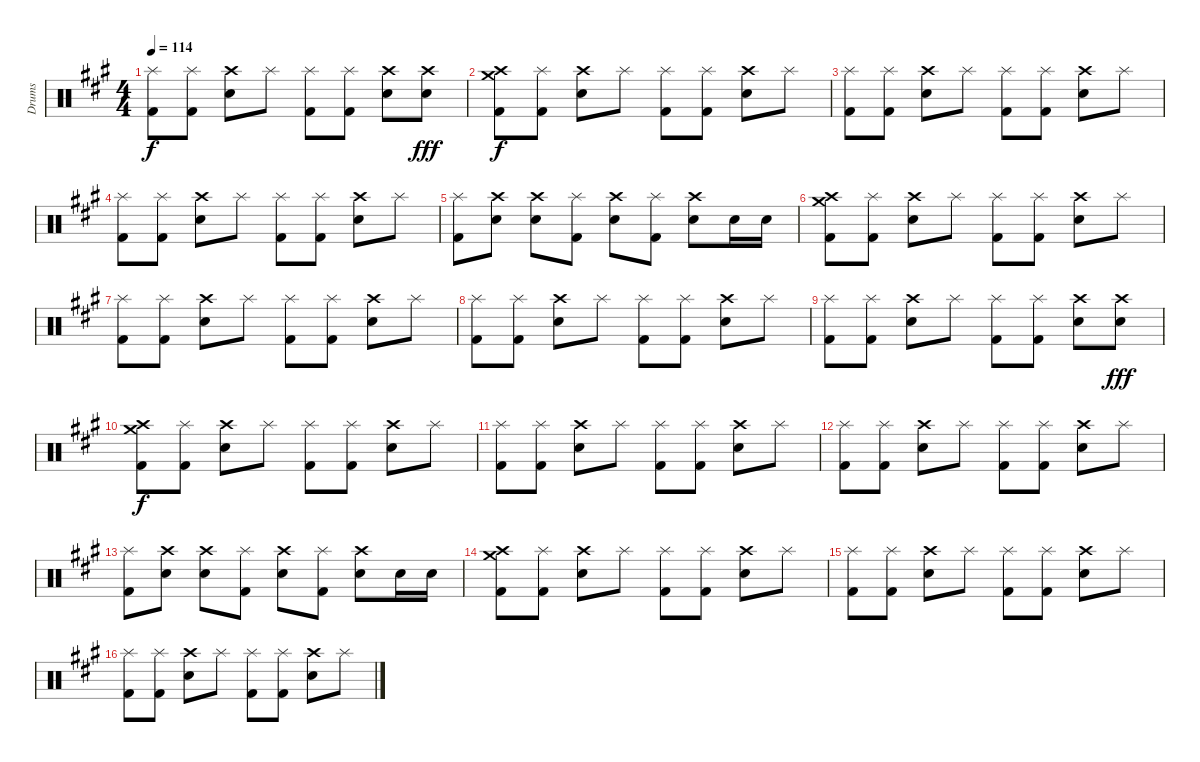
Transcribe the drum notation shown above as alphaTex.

\track ("Drums" "Drums") {instrument percussion}
\staff {score}
\articulation defaults
\ts (4 4)
\tempo 114
\clef neutral
\ks a
("Splash (hit)" "Kick (hit) 2").8{dy f} ("Splash (hit)" "Kick (hit) 2").8 ("Crash high (hit)" "Snare (hit) 2").8 "Splash (hit)".8 ("Splash (hit)" "Kick (hit) 2").8 ("Splash (hit)" "Kick (hit) 2").8 ("Crash high (hit)" "Snare (hit) 2").8 ("Crash high (hit)" "Snare (hit) 2").8{dy fff} |
("Crash high (hit)" "Crash medium (hit)" "Kick (hit) 2").8{dy f} ("Splash (hit)" "Kick (hit) 2").8 ("Crash high (hit)" "Snare (hit) 2").8 "Splash (hit)".8 ("Splash (hit)" "Kick (hit) 2").8 ("Splash (hit)" "Kick (hit) 2").8 ("Crash high (hit)" "Snare (hit) 2").8 "Splash (hit)".8 |
("Splash (hit)" "Kick (hit) 2").8 ("Splash (hit)" "Kick (hit) 2").8 ("Crash high (hit)" "Snare (hit) 2").8 "Splash (hit)".8 ("Splash (hit)" "Kick (hit) 2").8 ("Splash (hit)" "Kick (hit) 2").8 ("Crash high (hit)" "Snare (hit) 2").8 "Splash (hit)".8 |
("Splash (hit)" "Kick (hit) 2").8 ("Splash (hit)" "Kick (hit) 2").8 ("Crash high (hit)" "Snare (hit) 2").8 "Splash (hit)".8 ("Splash (hit)" "Kick (hit) 2").8 ("Splash (hit)" "Kick (hit) 2").8 ("Crash high (hit)" "Snare (hit) 2").8 "Splash (hit)".8 |
("Splash (hit)" "Kick (hit) 2").8 ("Crash high (hit)" "Snare (hit) 2").8 ("Crash high (hit)" "Snare (hit) 2").8 ("Splash (hit)" "Kick (hit) 2").8 ("Crash high (hit)" "Snare (hit) 2").8 ("Splash (hit)" "Kick (hit) 2").8 ("Crash high (hit)" "Snare (hit) 2").8 "Snare (hit) 2".16 "Snare (hit) 2".16 |
("Crash high (hit)" "Crash medium (hit)" "Kick (hit) 2").8 ("Splash (hit)" "Kick (hit) 2").8 ("Crash high (hit)" "Snare (hit) 2").8 "Splash (hit)".8 ("Splash (hit)" "Kick (hit) 2").8 ("Splash (hit)" "Kick (hit) 2").8 ("Crash high (hit)" "Snare (hit) 2").8 "Splash (hit)".8 |
("Splash (hit)" "Kick (hit) 2").8 ("Splash (hit)" "Kick (hit) 2").8 ("Crash high (hit)" "Snare (hit) 2").8 "Splash (hit)".8 ("Splash (hit)" "Kick (hit) 2").8 ("Splash (hit)" "Kick (hit) 2").8 ("Crash high (hit)" "Snare (hit) 2").8 "Splash (hit)".8 |
("Splash (hit)" "Kick (hit) 2").8 ("Splash (hit)" "Kick (hit) 2").8 ("Crash high (hit)" "Snare (hit) 2").8 "Splash (hit)".8 ("Splash (hit)" "Kick (hit) 2").8 ("Splash (hit)" "Kick (hit) 2").8 ("Crash high (hit)" "Snare (hit) 2").8 "Splash (hit)".8 |
("Splash (hit)" "Kick (hit) 2").8 ("Splash (hit)" "Kick (hit) 2").8 ("Crash high (hit)" "Snare (hit) 2").8 "Splash (hit)".8 ("Splash (hit)" "Kick (hit) 2").8 ("Splash (hit)" "Kick (hit) 2").8 ("Crash high (hit)" "Snare (hit) 2").8 ("Crash high (hit)" "Snare (hit) 2").8{dy fff} |
("Crash high (hit)" "Crash medium (hit)" "Kick (hit) 2").8{dy f} ("Splash (hit)" "Kick (hit) 2").8 ("Crash high (hit)" "Snare (hit) 2").8 "Splash (hit)".8 ("Splash (hit)" "Kick (hit) 2").8 ("Splash (hit)" "Kick (hit) 2").8 ("Crash high (hit)" "Snare (hit) 2").8 "Splash (hit)".8 |
("Splash (hit)" "Kick (hit) 2").8 ("Splash (hit)" "Kick (hit) 2").8 ("Crash high (hit)" "Snare (hit) 2").8 "Splash (hit)".8 ("Splash (hit)" "Kick (hit) 2").8 ("Splash (hit)" "Kick (hit) 2").8 ("Crash high (hit)" "Snare (hit) 2").8 "Splash (hit)".8 |
("Splash (hit)" "Kick (hit) 2").8 ("Splash (hit)" "Kick (hit) 2").8 ("Crash high (hit)" "Snare (hit) 2").8 "Splash (hit)".8 ("Splash (hit)" "Kick (hit) 2").8 ("Splash (hit)" "Kick (hit) 2").8 ("Crash high (hit)" "Snare (hit) 2").8 "Splash (hit)".8 |
("Splash (hit)" "Kick (hit) 2").8 ("Crash high (hit)" "Snare (hit) 2").8 ("Crash high (hit)" "Snare (hit) 2").8 ("Splash (hit)" "Kick (hit) 2").8 ("Crash high (hit)" "Snare (hit) 2").8 ("Splash (hit)" "Kick (hit) 2").8 ("Crash high (hit)" "Snare (hit) 2").8 "Snare (hit) 2".16 "Snare (hit) 2".16 |
("Crash high (hit)" "Crash medium (hit)" "Kick (hit) 2").8 ("Splash (hit)" "Kick (hit) 2").8 ("Crash high (hit)" "Snare (hit) 2").8 "Splash (hit)".8 ("Splash (hit)" "Kick (hit) 2").8 ("Splash (hit)" "Kick (hit) 2").8 ("Crash high (hit)" "Snare (hit) 2").8 "Splash (hit)".8 |
("Splash (hit)" "Kick (hit) 2").8 ("Splash (hit)" "Kick (hit) 2").8 ("Crash high (hit)" "Snare (hit) 2").8 "Splash (hit)".8 ("Splash (hit)" "Kick (hit) 2").8 ("Splash (hit)" "Kick (hit) 2").8 ("Crash high (hit)" "Snare (hit) 2").8 "Splash (hit)".8 |
("Splash (hit)" "Kick (hit) 2").8 ("Splash (hit)" "Kick (hit) 2").8 ("Crash high (hit)" "Snare (hit) 2").8 "Splash (hit)".8 ("Splash (hit)" "Kick (hit) 2").8 ("Splash (hit)" "Kick (hit) 2").8 ("Crash high (hit)" "Snare (hit) 2").8 "Splash (hit)".8
